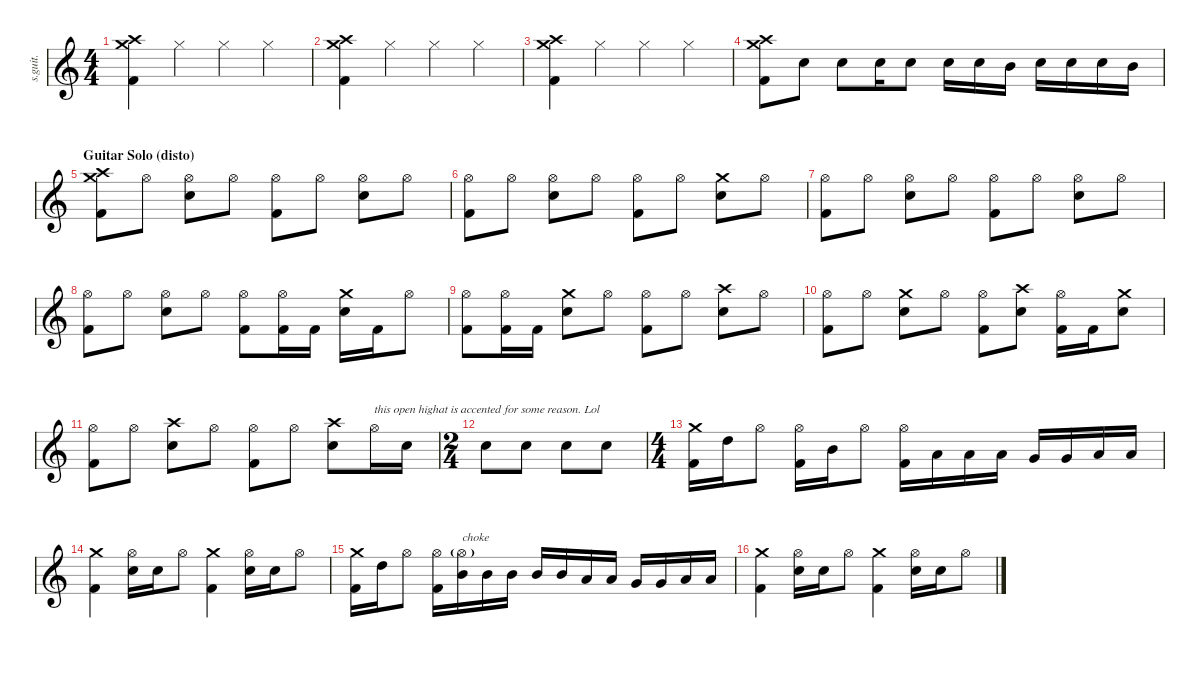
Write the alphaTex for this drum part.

\defaultSystemsLayout 4
\hideDynamics
\bracketExtendMode nobrackets
\track ("Lars Ulrich" "s.guit.") {instrument percussion}
\staff {score}
\articulation defaults
\ts (4 4)
\tempo (69 hide)
\clef g2
\ks c
("Crash medium (hit)" "Crash high (hit)" "Kick (hit) 2").4{lyrics (0 "") lyrics (1 "") lyrics (2 "") lyrics (3 "") lyrics (4 "") dy f} "Hi-Hat (closed)".4{lyrics (0 "") lyrics (1 "") lyrics (2 "") lyrics (3 "") lyrics (4 "") dy p} "Hi-Hat (closed)".4{lyrics (0 "") lyrics (1 "") lyrics (2 "") lyrics (3 "") lyrics (4 "")} "Hi-Hat (closed)".4{lyrics (0 "") lyrics (1 "") lyrics (2 "") lyrics (3 "") lyrics (4 "")} |
("Crash medium (hit)" "Crash high (hit)" "Kick (hit) 2").4{lyrics (0 "") lyrics (1 "") lyrics (2 "") lyrics (3 "") lyrics (4 "") dy f} "Hi-Hat (closed)".4{lyrics (0 "") lyrics (1 "") lyrics (2 "") lyrics (3 "") lyrics (4 "") dy p} "Hi-Hat (closed)".4{lyrics (0 "") lyrics (1 "") lyrics (2 "") lyrics (3 "") lyrics (4 "")} "Hi-Hat (closed)".4{lyrics (0 "") lyrics (1 "") lyrics (2 "") lyrics (3 "") lyrics (4 "")} |
("Crash medium (hit)" "Crash high (hit)" "Kick (hit) 2").4{lyrics (0 "") lyrics (1 "") lyrics (2 "") lyrics (3 "") lyrics (4 "") dy f} "Hi-Hat (closed)".4{lyrics (0 "") lyrics (1 "") lyrics (2 "") lyrics (3 "") lyrics (4 "") dy p} "Hi-Hat (closed)".4{lyrics (0 "") lyrics (1 "") lyrics (2 "") lyrics (3 "") lyrics (4 "")} "Hi-Hat (closed)".4{lyrics (0 "") lyrics (1 "") lyrics (2 "") lyrics (3 "") lyrics (4 "")} |
("Crash medium (hit)" "Crash high (hit)" "Kick (hit) 2").8{lyrics (0 "") lyrics (1 "") lyrics (2 "") lyrics (3 "") lyrics (4 "") dy f} "Snare (hit) 2".8{lyrics (0 "") lyrics (1 "") lyrics (2 "") lyrics (3 "") lyrics (4 "") dy fff} "Snare (hit) 2".8{lyrics (0 "") lyrics (1 "") lyrics (2 "") lyrics (3 "") lyrics (4 "")} "Snare (hit) 2".16{lyrics (0 "") lyrics (1 "") lyrics (2 "") lyrics (3 "") lyrics (4 "")} "Snare (hit) 2".8{lyrics (0 "") lyrics (1 "") lyrics (2 "") lyrics (3 "") lyrics (4 "")} "Snare (hit) 2".16{lyrics (0 "") lyrics (1 "") lyrics (2 "") lyrics (3 "") lyrics (4 "")} "Snare (hit) 2".16{lyrics (0 "") lyrics (1 "") lyrics (2 "") lyrics (3 "") lyrics (4 "")} "Mid Tom (hit)".16{lyrics (0 "") lyrics (1 "") lyrics (2 "") lyrics (3 "") lyrics (4 "")} "Snare (hit) 2".16{lyrics (0 "") lyrics (1 "") lyrics (2 "") lyrics (3 "") lyrics (4 "")} "Snare (hit) 2".16{lyrics (0 "") lyrics (1 "") lyrics (2 "") lyrics (3 "") lyrics (4 "")} "Snare (hit) 2".16{lyrics (0 "") lyrics (1 "") lyrics (2 "") lyrics (3 "") lyrics (4 "")} "Mid Tom (hit)".16{lyrics (0 "") lyrics (1 "") lyrics (2 "") lyrics (3 "") lyrics (4 "")} |
\section ("" "Guitar Solo (disto)")
("Crash medium (hit)" "Crash high (hit)" "Kick (hit) 2").8{lyrics (0 "") lyrics (1 "") lyrics (2 "") lyrics (3 "") lyrics (4 "")} "Hi-Hat (open)".8{lyrics (0 "") lyrics (1 "") lyrics (2 "") lyrics (3 "") lyrics (4 "") dy f} ("Hi-Hat (open)" "Snare (hit) 2").8{lyrics (0 "") lyrics (1 "") lyrics (2 "") lyrics (3 "") lyrics (4 "")} "Hi-Hat (open)".8{lyrics (0 "") lyrics (1 "") lyrics (2 "") lyrics (3 "") lyrics (4 "")} ("Hi-Hat (open)" "Kick (hit) 2").8{lyrics (0 "") lyrics (1 "") lyrics (2 "") lyrics (3 "") lyrics (4 "")} "Hi-Hat (open)".8{lyrics (0 "") lyrics (1 "") lyrics (2 "") lyrics (3 "") lyrics (4 "")} ("Hi-Hat (open)" "Snare (hit) 2").8{lyrics (0 "") lyrics (1 "") lyrics (2 "") lyrics (3 "") lyrics (4 "")} "Hi-Hat (open)".8{lyrics (0 "") lyrics (1 "") lyrics (2 "") lyrics (3 "") lyrics (4 "")} |
("Hi-Hat (open)" "Kick (hit) 2").8{lyrics (0 "") lyrics (1 "") lyrics (2 "") lyrics (3 "") lyrics (4 "")} "Hi-Hat (open)".8{lyrics (0 "") lyrics (1 "") lyrics (2 "") lyrics (3 "") lyrics (4 "")} ("Hi-Hat (open)" "Snare (hit) 2").8{lyrics (0 "") lyrics (1 "") lyrics (2 "") lyrics (3 "") lyrics (4 "")} "Hi-Hat (open)".8{lyrics (0 "") lyrics (1 "") lyrics (2 "") lyrics (3 "") lyrics (4 "")} ("Hi-Hat (open)" "Kick (hit) 2").8{lyrics (0 "") lyrics (1 "") lyrics (2 "") lyrics (3 "") lyrics (4 "")} "Hi-Hat (open)".8{lyrics (0 "") lyrics (1 "") lyrics (2 "") lyrics (3 "") lyrics (4 "")} ("Crash medium (hit)" "Snare (hit) 2").8{lyrics (0 "") lyrics (1 "") lyrics (2 "") lyrics (3 "") lyrics (4 "") dy fff} "Hi-Hat (open)".8{lyrics (0 "") lyrics (1 "") lyrics (2 "") lyrics (3 "") lyrics (4 "") dy f} |
("Hi-Hat (open)" "Kick (hit) 2").8{lyrics (0 "") lyrics (1 "") lyrics (2 "") lyrics (3 "") lyrics (4 "")} "Hi-Hat (open)".8{lyrics (0 "") lyrics (1 "") lyrics (2 "") lyrics (3 "") lyrics (4 "")} ("Hi-Hat (open)" "Snare (hit) 2").8{lyrics (0 "") lyrics (1 "") lyrics (2 "") lyrics (3 "") lyrics (4 "")} "Hi-Hat (open)".8{lyrics (0 "") lyrics (1 "") lyrics (2 "") lyrics (3 "") lyrics (4 "")} ("Hi-Hat (open)" "Kick (hit) 2").8{lyrics (0 "") lyrics (1 "") lyrics (2 "") lyrics (3 "") lyrics (4 "")} "Hi-Hat (open)".8{lyrics (0 "") lyrics (1 "") lyrics (2 "") lyrics (3 "") lyrics (4 "")} ("Hi-Hat (open)" "Snare (hit) 2").8{lyrics (0 "") lyrics (1 "") lyrics (2 "") lyrics (3 "") lyrics (4 "")} "Hi-Hat (open)".8{lyrics (0 "") lyrics (1 "") lyrics (2 "") lyrics (3 "") lyrics (4 "")} |
("Hi-Hat (open)" "Kick (hit) 2").8{lyrics (0 "") lyrics (1 "") lyrics (2 "") lyrics (3 "") lyrics (4 "")} "Hi-Hat (open)".8{lyrics (0 "") lyrics (1 "") lyrics (2 "") lyrics (3 "") lyrics (4 "")} ("Hi-Hat (open)" "Snare (hit) 2").8{lyrics (0 "") lyrics (1 "") lyrics (2 "") lyrics (3 "") lyrics (4 "")} "Hi-Hat (open)".8{lyrics (0 "") lyrics (1 "") lyrics (2 "") lyrics (3 "") lyrics (4 "")} ("Hi-Hat (open)" "Kick (hit) 2").8{lyrics (0 "") lyrics (1 "") lyrics (2 "") lyrics (3 "") lyrics (4 "")} ("Hi-Hat (open)" "Kick (hit) 2").16{lyrics (0 "") lyrics (1 "") lyrics (2 "") lyrics (3 "") lyrics (4 "")} "Kick (hit) 2".16{lyrics (0 "") lyrics (1 "") lyrics (2 "") lyrics (3 "") lyrics (4 "") dy fff} ("Crash medium (hit)" "Snare (hit) 2").16{lyrics (0 "") lyrics (1 "") lyrics (2 "") lyrics (3 "") lyrics (4 "")} "Kick (hit) 2".16{lyrics (0 "") lyrics (1 "") lyrics (2 "") lyrics (3 "") lyrics (4 "")} "Hi-Hat (open)".8{lyrics (0 "") lyrics (1 "") lyrics (2 "") lyrics (3 "") lyrics (4 "") dy f} |
("Hi-Hat (open)" "Kick (hit) 2").8{lyrics (0 "") lyrics (1 "") lyrics (2 "") lyrics (3 "") lyrics (4 "")} ("Hi-Hat (open)" "Kick (hit) 2").16{lyrics (0 "") lyrics (1 "") lyrics (2 "") lyrics (3 "") lyrics (4 "")} "Kick (hit) 2".16{lyrics (0 "") lyrics (1 "") lyrics (2 "") lyrics (3 "") lyrics (4 "") dy fff} ("Crash medium (hit)" "Snare (hit) 2").8{lyrics (0 "") lyrics (1 "") lyrics (2 "") lyrics (3 "") lyrics (4 "")} "Hi-Hat (open)".8{lyrics (0 "") lyrics (1 "") lyrics (2 "") lyrics (3 "") lyrics (4 "") dy f} ("Hi-Hat (open)" "Kick (hit) 2").8{lyrics (0 "") lyrics (1 "") lyrics (2 "") lyrics (3 "") lyrics (4 "")} "Hi-Hat (open)".8{lyrics (0 "") lyrics (1 "") lyrics (2 "") lyrics (3 "") lyrics (4 "")} ("Crash high (hit)" "Snare (hit) 2").8{lyrics (0 "") lyrics (1 "") lyrics (2 "") lyrics (3 "") lyrics (4 "") dy fff} "Hi-Hat (open)".8{lyrics (0 "") lyrics (1 "") lyrics (2 "") lyrics (3 "") lyrics (4 "") dy f} |
("Hi-Hat (open)" "Kick (hit) 2").8{lyrics (0 "") lyrics (1 "") lyrics (2 "") lyrics (3 "") lyrics (4 "")} "Hi-Hat (open)".8{lyrics (0 "") lyrics (1 "") lyrics (2 "") lyrics (3 "") lyrics (4 "")} ("Crash medium (hit)" "Snare (hit) 2").8{lyrics (0 "") lyrics (1 "") lyrics (2 "") lyrics (3 "") lyrics (4 "") dy fff} "Hi-Hat (open)".8{lyrics (0 "") lyrics (1 "") lyrics (2 "") lyrics (3 "") lyrics (4 "") dy f} ("Hi-Hat (open)" "Kick (hit) 2").8{lyrics (0 "") lyrics (1 "") lyrics (2 "") lyrics (3 "") lyrics (4 "")} ("Crash high (hit)" "Snare (hit) 2").8{lyrics (0 "") lyrics (1 "") lyrics (2 "") lyrics (3 "") lyrics (4 "") dy fff} ("Hi-Hat (open)" "Kick (hit) 2").16{lyrics (0 "") lyrics (1 "") lyrics (2 "") lyrics (3 "") lyrics (4 "") dy f} "Kick (hit) 2".16{lyrics (0 "") lyrics (1 "") lyrics (2 "") lyrics (3 "") lyrics (4 "") dy fff} ("Crash medium (hit)" "Snare (hit) 2").8{lyrics (0 "") lyrics (1 "") lyrics (2 "") lyrics (3 "") lyrics (4 "")} |
("Hi-Hat (open)" "Kick (hit) 2").8{lyrics (0 "") lyrics (1 "") lyrics (2 "") lyrics (3 "") lyrics (4 "") dy f} "Hi-Hat (open)".8{lyrics (0 "") lyrics (1 "") lyrics (2 "") lyrics (3 "") lyrics (4 "")} ("Crash high (hit)" "Snare (hit) 2").8{lyrics (0 "") lyrics (1 "") lyrics (2 "") lyrics (3 "") lyrics (4 "") dy fff} "Hi-Hat (open)".8{lyrics (0 "") lyrics (1 "") lyrics (2 "") lyrics (3 "") lyrics (4 "") dy f} ("Hi-Hat (open)" "Kick (hit) 2").8{lyrics (0 "") lyrics (1 "") lyrics (2 "") lyrics (3 "") lyrics (4 "")} "Hi-Hat (open)".8{lyrics (0 "") lyrics (1 "") lyrics (2 "") lyrics (3 "") lyrics (4 "")} ("Crash high (hit)" "Snare (hit) 2").8{lyrics (0 "") lyrics (1 "") lyrics (2 "") lyrics (3 "") lyrics (4 "") dy fff} "Hi-Hat (open)".16{txt "this open highat is accented for some reason. Lol " lyrics (0 "") lyrics (1 "") lyrics (2 "") lyrics (3 "") lyrics (4 "")} "Snare (hit) 2".16{lyrics (0 "") lyrics (1 "") lyrics (2 "") lyrics (3 "") lyrics (4 "")} |
\ts (2 4)
\beaming (8 2 2 2 2)
"Snare (hit) 2".8{lyrics (0 "") lyrics (1 "") lyrics (2 "") lyrics (3 "") lyrics (4 "")} "Snare (hit) 2".8{lyrics (0 "") lyrics (1 "") lyrics (2 "") lyrics (3 "") lyrics (4 "")} "Snare (hit) 2".8{lyrics (0 "") lyrics (1 "") lyrics (2 "") lyrics (3 "") lyrics (4 "")} "Snare (hit) 2".8{lyrics (0 "") lyrics (1 "") lyrics (2 "") lyrics (3 "") lyrics (4 "")} |
\ts (4 4)
\beaming (8 2 2 2 2)
("Crash medium (hit)" "Kick (hit) 2").16{lyrics (0 "") lyrics (1 "") lyrics (2 "") lyrics (3 "") lyrics (4 "") dy f} "High Tom (hit)".16{lyrics (0 "") lyrics (1 "") lyrics (2 "") lyrics (3 "") lyrics (4 "") dy fff} "Hi-Hat (open)".8{lyrics (0 "") lyrics (1 "") lyrics (2 "") lyrics (3 "") lyrics (4 "") dy f} ("Hi-Hat (open)" "Kick (hit) 2").16{lyrics (0 "") lyrics (1 "") lyrics (2 "") lyrics (3 "") lyrics (4 "")} "Mid Tom (hit)".16{lyrics (0 "") lyrics (1 "") lyrics (2 "") lyrics (3 "") lyrics (4 "") dy fff} "Hi-Hat (open)".8{lyrics (0 "") lyrics (1 "") lyrics (2 "") lyrics (3 "") lyrics (4 "") dy f} ("Hi-Hat (open)" "Kick (hit) 2").16{lyrics (0 "") lyrics (1 "") lyrics (2 "") lyrics (3 "") lyrics (4 "")} "Low Tom (hit)".16{lyrics (0 "") lyrics (1 "") lyrics (2 "") lyrics (3 "") lyrics (4 "") dy fff} "Low Tom (hit)".16{lyrics (0 "") lyrics (1 "") lyrics (2 "") lyrics (3 "") lyrics (4 "")} "Low Tom (hit)".16{lyrics (0 "") lyrics (1 "") lyrics (2 "") lyrics (3 "") lyrics (4 "")} "Very Low Tom (hit)".16{lyrics (0 "") lyrics (1 "") lyrics (2 "") lyrics (3 "") lyrics (4 "")} "Very Low Tom (hit)".16{lyrics (0 "") lyrics (1 "") lyrics (2 "") lyrics (3 "") lyrics (4 "")} "Low Floor Tom (hit)".16{lyrics (0 "") lyrics (1 "") lyrics (2 "") lyrics (3 "") lyrics (4 "")} "Low Floor Tom (hit)".16{lyrics (0 "") lyrics (1 "") lyrics (2 "") lyrics (3 "") lyrics (4 "")} |
("Crash medium (hit)" "Kick (hit) 2").4{lyrics (0 "") lyrics (1 "") lyrics (2 "") lyrics (3 "") lyrics (4 "")} ("Hi-Hat (open)" "Snare (hit) 2").16{lyrics (0 "") lyrics (1 "") lyrics (2 "") lyrics (3 "") lyrics (4 "") dy f} "Snare (hit) 2".16{lyrics (0 "") lyrics (1 "") lyrics (2 "") lyrics (3 "") lyrics (4 "") dy fff} "Hi-Hat (open)".8{lyrics (0 "") lyrics (1 "") lyrics (2 "") lyrics (3 "") lyrics (4 "") dy f} ("Crash medium (hit)" "Kick (hit) 2").4{lyrics (0 "") lyrics (1 "") lyrics (2 "") lyrics (3 "") lyrics (4 "") dy fff} ("Hi-Hat (open)" "Snare (hit) 2").16{lyrics (0 "") lyrics (1 "") lyrics (2 "") lyrics (3 "") lyrics (4 "") dy f} "Snare (hit) 2".16{lyrics (0 "") lyrics (1 "") lyrics (2 "") lyrics (3 "") lyrics (4 "") dy fff} "Hi-Hat (open)".8{lyrics (0 "") lyrics (1 "") lyrics (2 "") lyrics (3 "") lyrics (4 "") dy f} |
("Crash medium (hit)" "Kick (hit) 2").16{lyrics (0 "") lyrics (1 "") lyrics (2 "") lyrics (3 "") lyrics (4 "") dy fff} "High Tom (hit)".16{lyrics (0 "") lyrics (1 "") lyrics (2 "") lyrics (3 "") lyrics (4 "")} "Hi-Hat (open)".8{lyrics (0 "") lyrics (1 "") lyrics (2 "") lyrics (3 "") lyrics (4 "")} ("Hi-Hat (open)" "Kick (hit) 2").16{lyrics (0 "") lyrics (1 "") lyrics (2 "") lyrics (3 "") lyrics (4 "")} ("Hi-Hat (open)"{g} "Mid Tom (hit)").16{txt "choke" lyrics (0 "") lyrics (1 "") lyrics (2 "") lyrics (3 "") lyrics (4 "")} "Mid Tom (hit)".16{lyrics (0 "") lyrics (1 "") lyrics (2 "") lyrics (3 "") lyrics (4 "")} "Mid Tom (hit)".16{lyrics (0 "") lyrics (1 "") lyrics (2 "") lyrics (3 "") lyrics (4 "")} "Mid Tom (hit)".16{lyrics (0 "") lyrics (1 "") lyrics (2 "") lyrics (3 "") lyrics (4 "")} "Mid Tom (hit)".16{lyrics (0 "") lyrics (1 "") lyrics (2 "") lyrics (3 "") lyrics (4 "")} "Low Tom (hit)".16{lyrics (0 "") lyrics (1 "") lyrics (2 "") lyrics (3 "") lyrics (4 "")} "Low Tom (hit)".16{lyrics (0 "") lyrics (1 "") lyrics (2 "") lyrics (3 "") lyrics (4 "")} "Very Low Tom (hit)".16{lyrics (0 "") lyrics (1 "") lyrics (2 "") lyrics (3 "") lyrics (4 "")} "Very Low Tom (hit)".16{lyrics (0 "") lyrics (1 "") lyrics (2 "") lyrics (3 "") lyrics (4 "")} "Low Floor Tom (hit)".16{lyrics (0 "") lyrics (1 "") lyrics (2 "") lyrics (3 "") lyrics (4 "")} "Low Floor Tom (hit)".16{lyrics (0 "") lyrics (1 "") lyrics (2 "") lyrics (3 "") lyrics (4 "")} |
("Crash medium (hit)" "Kick (hit) 2").4{lyrics (0 "") lyrics (1 "") lyrics (2 "") lyrics (3 "") lyrics (4 "")} ("Hi-Hat (open)" "Snare (hit) 2").16{lyrics (0 "") lyrics (1 "") lyrics (2 "") lyrics (3 "") lyrics (4 "") dy f} "Snare (hit) 2".16{lyrics (0 "") lyrics (1 "") lyrics (2 "") lyrics (3 "") lyrics (4 "") dy fff} "Hi-Hat (open)".8{lyrics (0 "") lyrics (1 "") lyrics (2 "") lyrics (3 "") lyrics (4 "") dy f} ("Crash medium (hit)" "Kick (hit) 2").4{lyrics (0 "") lyrics (1 "") lyrics (2 "") lyrics (3 "") lyrics (4 "") dy fff} ("Hi-Hat (open)" "Snare (hit) 2").16{lyrics (0 "") lyrics (1 "") lyrics (2 "") lyrics (3 "") lyrics (4 "") dy f} "Snare (hit) 2".16{lyrics (0 "") lyrics (1 "") lyrics (2 "") lyrics (3 "") lyrics (4 "") dy fff} "Hi-Hat (open)".8{lyrics (0 "") lyrics (1 "") lyrics (2 "") lyrics (3 "") lyrics (4 "") dy f}
